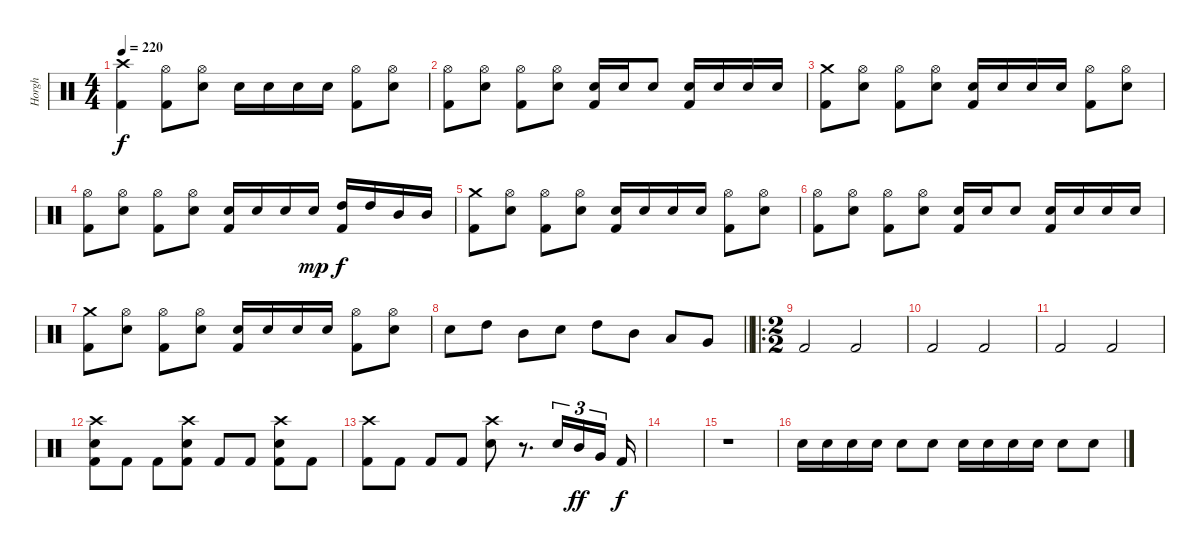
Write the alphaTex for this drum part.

\track ("Horgh" "Horgh") {instrument percussion}
\staff {score}
\articulation defaults
\ts (4 4)
\tempo 220
\clef neutral
\ks c
("Crash high (hit)" "Kick (hit) 2").4{dy f} ("Hi-Hat (open)" "Kick (hit) 2").8 ("Hi-Hat (open)" "Electric Snare (hit)").8 "Electric Snare (hit)".16 "Electric Snare (hit)".16 "Electric Snare (hit)".16 "Electric Snare (hit)".16 ("Hi-Hat (open)" "Kick (hit) 2").8 ("Hi-Hat (open)" "Electric Snare (hit)").8 |
("Hi-Hat (open)" "Kick (hit) 2").8 ("Hi-Hat (open)" "Electric Snare (hit)").8 ("Hi-Hat (open)" "Kick (hit) 2").8 ("Hi-Hat (open)" "Electric Snare (hit)").8 ("Electric Snare (hit)" "Kick (hit) 2").16 "Electric Snare (hit)".16 "Electric Snare (hit)".8 ("Electric Snare (hit)" "Kick (hit) 2").16 "Electric Snare (hit)".16 "Electric Snare (hit)".16 "Electric Snare (hit)".16 |
("Crash medium (hit)" "Kick (hit) 2").8 ("Hi-Hat (open)" "Electric Snare (hit)").8 ("Hi-Hat (open)" "Kick (hit) 2").8 ("Hi-Hat (open)" "Electric Snare (hit)").8 ("Electric Snare (hit)" "Kick (hit) 2").16 "Electric Snare (hit)".16 "Electric Snare (hit)".16 "Electric Snare (hit)".16 ("Hi-Hat (open)" "Kick (hit) 2").8 ("Hi-Hat (open)" "Electric Snare (hit)").8 |
("Hi-Hat (open)" "Kick (hit) 2").8 ("Hi-Hat (open)" "Electric Snare (hit)").8 ("Hi-Hat (open)" "Kick (hit) 2").8 ("Hi-Hat (open)" "Electric Snare (hit)").8 ("Electric Snare (hit)" "Kick (hit) 2").16 "Electric Snare (hit)".16 "Electric Snare (hit)".16 "Electric Snare (hit)".16{dy mp} ("High Tom (hit)" "Kick (hit) 2").16{dy f} "High Tom (hit)".16 "Mid Tom (hit)".16 "Mid Tom (hit)".16 |
("Crash medium (hit)" "Kick (hit) 2").8 ("Hi-Hat (open)" "Electric Snare (hit)").8 ("Hi-Hat (open)" "Kick (hit) 2").8 ("Hi-Hat (open)" "Electric Snare (hit)").8 ("Electric Snare (hit)" "Kick (hit) 2").16 "Electric Snare (hit)".16 "Electric Snare (hit)".16 "Electric Snare (hit)".16 ("Hi-Hat (open)" "Kick (hit) 2").8 ("Hi-Hat (open)" "Electric Snare (hit)").8 |
("Hi-Hat (open)" "Kick (hit) 2").8 ("Hi-Hat (open)" "Electric Snare (hit)").8 ("Hi-Hat (open)" "Kick (hit) 2").8 ("Hi-Hat (open)" "Electric Snare (hit)").8 ("Electric Snare (hit)" "Kick (hit) 2").16 "Electric Snare (hit)".16 "Electric Snare (hit)".8 ("Electric Snare (hit)" "Kick (hit) 2").16 "Electric Snare (hit)".16 "Electric Snare (hit)".16 "Electric Snare (hit)".16 |
("Crash medium (hit)" "Kick (hit) 2").8 ("Hi-Hat (open)" "Electric Snare (hit)").8 ("Hi-Hat (open)" "Kick (hit) 2").8 ("Hi-Hat (open)" "Electric Snare (hit)").8 ("Electric Snare (hit)" "Kick (hit) 2").16 "Electric Snare (hit)".16 "Electric Snare (hit)".16 "Electric Snare (hit)".16 ("Hi-Hat (open)" "Kick (hit) 2").8 ("Hi-Hat (open)" "Electric Snare (hit)").8 |
\barLineRight lightlight "Electric Snare (hit)".8 "High Tom (hit)".8 "Mid Tom (hit)".8 "Electric Snare (hit)".8 "High Tom (hit)".8 "Mid Tom (hit)".8 "Low Tom (hit)".8 "Very Low Tom (hit)".8
|
\ro
\ts (2 2)
"Kick (hit) 2".2 "Kick (hit) 2".2 |
"Kick (hit) 2".2 "Kick (hit) 2".2 |
"Kick (hit) 2".2 "Kick (hit) 2".2 |
("Crash high (hit)" "Electric Snare (hit)" "Kick (hit) 2").8 "Kick (hit) 2".8 "Kick (hit) 2".8 ("Crash high (hit)" "Electric Snare (hit)" "Kick (hit) 2").8 "Kick (hit) 2".8 "Kick (hit) 2".8 ("Crash high (hit)" "Electric Snare (hit)" "Kick (hit) 2").8 "Kick (hit) 2".8 |
("Crash high (hit)" "Kick (hit) 2").8 "Kick (hit) 2".8 "Kick (hit) 2".8 "Kick (hit) 2".8 ("Crash high (hit)" "Electric Snare (hit)").8 r.8{d} "Electric Snare (hit)".16{tu (3 2)} "Mid Tom (hit)".16{tu (3 2) dy ff} "Very Low Tom (hit)".16{tu (3 2)} "Kick (hit) 2".16{dy f} |
|
r.1 |
"Electric Snare (hit)".16 "Electric Snare (hit)".16 "Electric Snare (hit)".16 "Electric Snare (hit)".16 "Electric Snare (hit)".8 "Electric Snare (hit)".8 "Electric Snare (hit)".16 "Electric Snare (hit)".16 "Electric Snare (hit)".16 "Electric Snare (hit)".16 "Electric Snare (hit)".8 "Electric Snare (hit)".8
